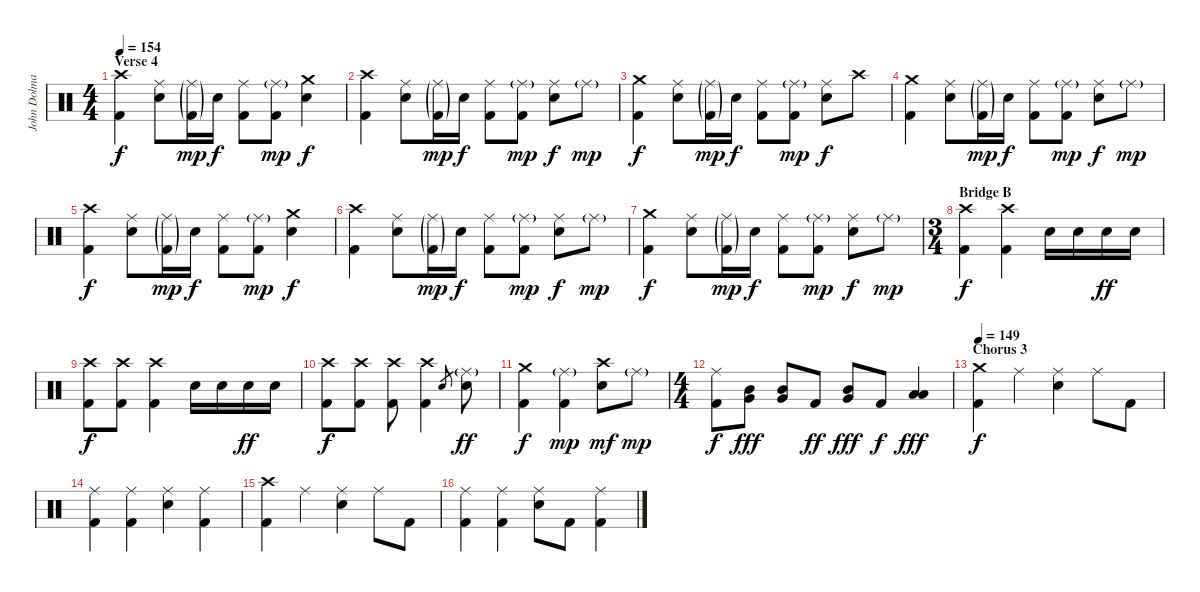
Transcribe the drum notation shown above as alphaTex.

\track ("John Dolmayan" "John Dolma") {instrument percussion}
\staff {score}
\articulation defaults
\ts (4 4)
\section ("" "Verse 4")
\tempo 154
\clef neutral
\ks c
("Crash high (hit)" "Kick (hit) 2").4{dy f} ("Ride (middle)" "Electric Snare (hit)").8 ("Ride (middle)"{g} "Kick (hit) 2"{g}).16{dy mp} "Electric Snare (hit)".16{dy f} ("Ride (middle)" "Kick (hit) 2").8 ("Ride (middle)"{g} "Kick (hit) 2").8{dy mp} ("Crash medium (hit)" "Electric Snare (hit)").4{dy f} |
("Crash high (hit)" "Kick (hit) 2").4 ("Ride (middle)" "Electric Snare (hit)").8 ("Ride (middle)"{g} "Kick (hit) 2"{g}).16{dy mp} "Electric Snare (hit)".16{dy f} ("Ride (middle)" "Kick (hit) 2").8 ("Ride (middle)"{g} "Kick (hit) 2").8{dy mp} ("Ride (middle)" "Electric Snare (hit)").8{dy f} "Ride (middle)"{g}.8{dy mp} |
("Crash medium (hit)" "Kick (hit) 2").4{dy f} ("Ride (middle)" "Electric Snare (hit)").8 ("Ride (middle)"{g} "Kick (hit) 2"{g}).16{dy mp} "Electric Snare (hit)".16{dy f} ("Ride (middle)" "Kick (hit) 2").8 ("Ride (middle)"{g} "Kick (hit) 2").8{dy mp} ("Ride (middle)" "Electric Snare (hit)").8{dy f} "Crash high (hit)".8 |
("Crash medium (hit)" "Kick (hit) 2").4 ("Ride (middle)" "Electric Snare (hit)").8 ("Ride (middle)"{g} "Kick (hit) 2"{g}).16{dy mp} "Electric Snare (hit)".16{dy f} ("Ride (middle)" "Kick (hit) 2").8 ("Ride (middle)"{g} "Kick (hit) 2").8{dy mp} ("Ride (middle)" "Electric Snare (hit)").8{dy f} "Ride (middle)"{g}.8{dy mp} |
("Crash high (hit)" "Kick (hit) 2").4{dy f} ("Ride (middle)" "Electric Snare (hit)").8 ("Ride (middle)"{g} "Kick (hit) 2"{g}).16{dy mp} "Electric Snare (hit)".16{dy f} ("Ride (middle)" "Kick (hit) 2").8 ("Ride (middle)"{g} "Kick (hit) 2").8{dy mp} ("Crash medium (hit)" "Electric Snare (hit)").4{dy f} |
("Crash high (hit)" "Kick (hit) 2").4 ("Ride (middle)" "Electric Snare (hit)").8 ("Ride (middle)"{g} "Kick (hit) 2"{g}).16{dy mp} "Electric Snare (hit)".16{dy f} ("Ride (middle)" "Kick (hit) 2").8 ("Ride (middle)"{g} "Kick (hit) 2").8{dy mp} ("Ride (middle)" "Electric Snare (hit)").8{dy f} "Ride (middle)"{g}.8{dy mp} |
("Crash medium (hit)" "Kick (hit) 2").4{dy f} ("Ride (middle)" "Electric Snare (hit)").8 ("Ride (middle)"{g} "Kick (hit) 2"{g}).16{dy mp} "Electric Snare (hit)".16{dy f} ("Ride (middle)" "Kick (hit) 2").8 ("Ride (middle)"{g} "Kick (hit) 2").8{dy mp} ("Ride (middle)" "Electric Snare (hit)").8{dy f} "Ride (middle)"{g}.8{dy mp} |
\ts (3 4)
\section ("" "Bridge B")
("Crash high (hit)" "Kick (hit) 2").4{dy f} ("Crash high (hit)" "Kick (hit) 2").4 "Electric Snare (hit)".16 "Electric Snare (hit)".16 "Electric Snare (hit)".16{dy ff} "Electric Snare (hit)".16 |
("Crash high (hit)" "Kick (hit) 2").8{dy f} ("Crash high (hit)" "Kick (hit) 2").8 ("Crash high (hit)" "Kick (hit) 2").4 "Electric Snare (hit)".16 "Electric Snare (hit)".16 "Electric Snare (hit)".16{dy ff} "Electric Snare (hit)".16 |
("Crash high (hit)" "Kick (hit) 2").8{dy f} ("Crash high (hit)" "Kick (hit) 2").8 ("Crash high (hit)" "Kick (hit) 2").8 ("Crash high (hit)" "Kick (hit) 2").4 "Electric Snare (hit)".8{gr} ("Ride (middle)"{g} "Electric Snare (hit)").8{dy ff} |
("Crash medium (hit)" "Kick (hit) 2").4{dy f} ("Ride (middle)"{g} "Kick (hit) 2").4{dy mp} ("Crash high (hit)" "Electric Snare (hit)").8{dy mf} "Ride (middle)"{g}.8{dy mp} |
\ts (4 4)
("Ride (middle)" "Kick (hit) 2").8{dy f} ("Mid Tom (hit)" "Very Low Tom (hit)").8{dy fff} ("Mid Tom (hit)" "Very Low Tom (hit)").8 "Kick (hit) 2".8{dy ff} ("Mid Tom (hit)" "Very Low Tom (hit)").8{dy fff} "Kick (hit) 2".8{dy f} ("Low Tom (hit)" "Low Floor Tom (hit)").4{dy fff} |
\section ("" "Chorus 3")
\tempo 149
("Crash medium (hit)" "Kick (hit) 2").4{dy f} "Ride (middle)".4 ("Ride (middle)" "Electric Snare (hit)").4 "Ride (middle)".8 "Kick (hit) 2".8 |
("Ride (middle)" "Kick (hit) 2").4 ("Ride (middle)" "Kick (hit) 2").4 ("Ride (middle)" "Electric Snare (hit)").4 ("Ride (middle)" "Kick (hit) 2").4 |
("Crash high (hit)" "Kick (hit) 2").4 "Ride (middle)".4 ("Ride (middle)" "Electric Snare (hit)").4 "Ride (middle)".8 "Kick (hit) 2".8 |
("Ride (middle)" "Kick (hit) 2").4 ("Ride (middle)" "Kick (hit) 2").4 ("Ride (middle)" "Electric Snare (hit)").8 "Kick (hit) 2".8 ("Ride (middle)" "Kick (hit) 2").4
